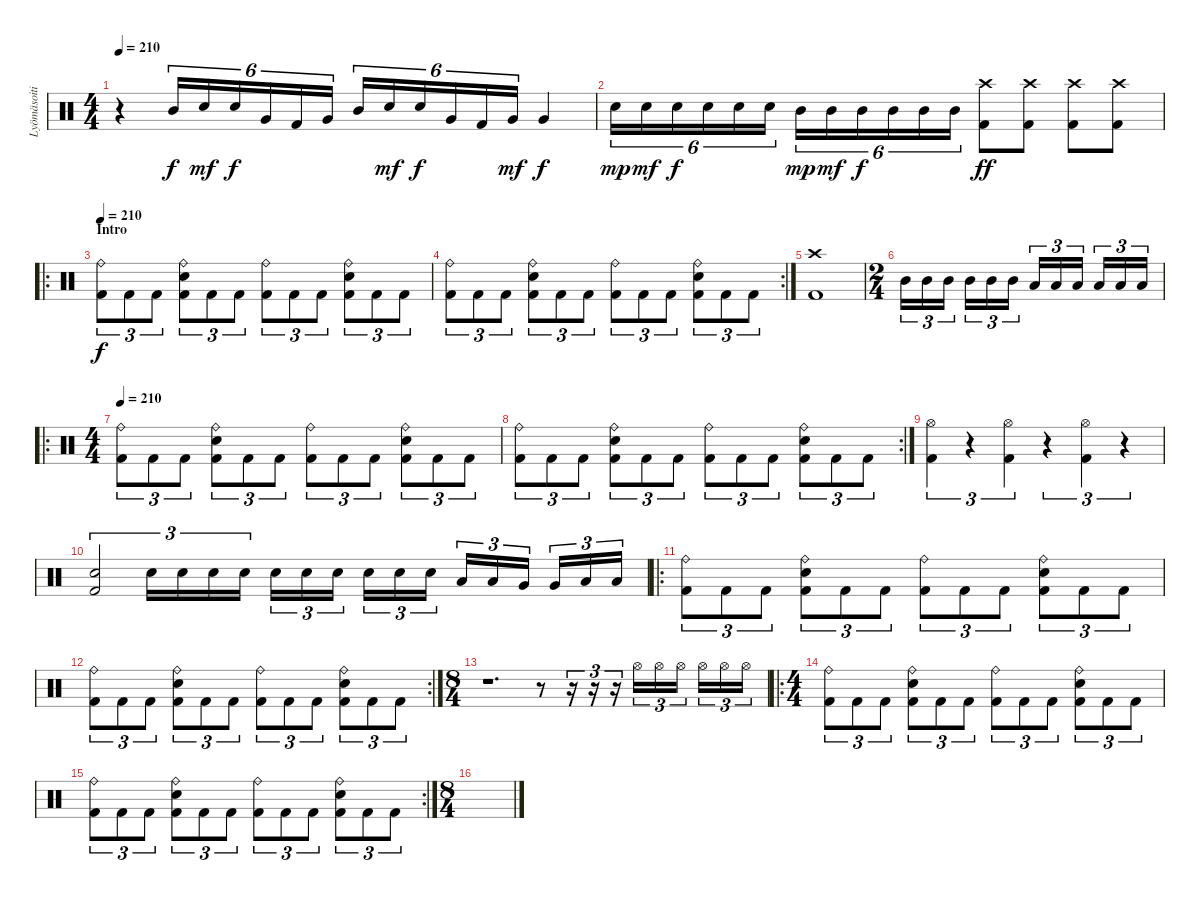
\track ("Lyömäsoitin" "Lyömäsoiti") {instrument percussion}
\staff {score}
\articulation defaults
\ts (4 4)
\tempo 210
\tempo 144
\tempo 210
\clef neutral
\ks c
r.4{dy f} "Mid Tom (hit)".16{tu (6 4)} "Snare (hit) 2".16{tu (6 4) dy mf} "Snare (hit) 2".16{tu (6 4) dy f} "Very Low Tom (hit)".16{tu (6 4)} "Kick (hit) 2".16{tu (6 4)} "Very Low Tom (hit)".16{tu (6 4)} "Mid Tom (hit)".16{tu (6 4)} "Snare (hit) 2".16{tu (6 4) dy mf} "Snare (hit) 2".16{tu (6 4) dy f} "Very Low Tom (hit)".16{tu (6 4)} "Kick (hit) 2".16{tu (6 4)} "Very Low Tom (hit)".16{tu (6 4) dy mf} "Very Low Tom (hit)".4{dy f} |
"Snare (hit) 2".16{tu (6 4) dy mp} "Snare (hit) 2".16{tu (6 4) dy mf} "Snare (hit) 2".16{tu (6 4) dy f} "Snare (hit) 2".16{tu (6 4)} "Snare (hit) 2".16{tu (6 4)} "Snare (hit) 2".16{tu (6 4)} "Mid Tom (hit)".16{tu (6 4) dy mp} "Mid Tom (hit)".16{tu (6 4) dy mf} "Mid Tom (hit)".16{tu (6 4) dy f} "Mid Tom (hit)".16{tu (6 4)} "Mid Tom (hit)".16{tu (6 4)} "Mid Tom (hit)".16{tu (6 4)} ("Crash high (hit)" "Kick (hit) 2").8{dy ff} ("Crash high (hit)" "Kick (hit) 2").8 ("Crash high (hit)" "Kick (hit) 2").8 ("Crash high (hit)" "Kick (hit) 2").8 |
\ro
\section ("" "Intro")
\tempo 210
("Ride (bell)" "Kick (hit) 2").8{tu (3 2) dy f} "Kick (hit) 2".8{tu (3 2)} "Kick (hit) 2".8{tu (3 2)} ("Ride (bell)" "Snare (hit) 2" "Kick (hit) 2").8{tu (3 2)} "Kick (hit) 2".8{tu (3 2)} "Kick (hit) 2".8{tu (3 2)} ("Ride (bell)" "Kick (hit) 2").8{tu (3 2)} "Kick (hit) 2".8{tu (3 2)} "Kick (hit) 2".8{tu (3 2)} ("Ride (bell)" "Snare (hit) 2" "Kick (hit) 2").8{tu (3 2)} "Kick (hit) 2".8{tu (3 2)} "Kick (hit) 2".8{tu (3 2)} |
\rc 2
("Ride (bell)" "Kick (hit) 2").8{tu (3 2)} "Kick (hit) 2".8{tu (3 2)} "Kick (hit) 2".8{tu (3 2)} ("Ride (bell)" "Snare (hit) 2" "Kick (hit) 2").8{tu (3 2)} "Kick (hit) 2".8{tu (3 2)} "Kick (hit) 2".8{tu (3 2)} ("Ride (bell)" "Kick (hit) 2").8{tu (3 2)} "Kick (hit) 2".8{tu (3 2)} "Kick (hit) 2".8{tu (3 2)} ("Ride (bell)" "Snare (hit) 2" "Kick (hit) 2").8{tu (3 2)} "Kick (hit) 2".8{tu (3 2)} "Kick (hit) 2".8{tu (3 2)} |
("Crash high (hit)" "Kick (hit) 2").1 |
\ts (2 4)
"Mid Tom (hit)".16{tu (3 2)} "Mid Tom (hit)".16{tu (3 2)} "Mid Tom (hit)".16{tu (3 2)} "Mid Tom (hit)".16{tu (3 2)} "Mid Tom (hit)".16{tu (3 2)} "Mid Tom (hit)".16{tu (3 2)} "Low Tom (hit)".16{tu (3 2)} "Low Tom (hit)".16{tu (3 2)} "Low Tom (hit)".16{tu (3 2)} "Low Tom (hit)".16{tu (3 2)} "Low Tom (hit)".16{tu (3 2)} "Low Tom (hit)".16{tu (3 2)} |
\ro
\ts (4 4)
\tempo 210
("Ride (bell)" "Kick (hit) 2").8{tu (3 2)} "Kick (hit) 2".8{tu (3 2)} "Kick (hit) 2".8{tu (3 2)} ("Ride (bell)" "Snare (hit) 2" "Kick (hit) 2").8{tu (3 2)} "Kick (hit) 2".8{tu (3 2)} "Kick (hit) 2".8{tu (3 2)} ("Ride (bell)" "Kick (hit) 2").8{tu (3 2)} "Kick (hit) 2".8{tu (3 2)} "Kick (hit) 2".8{tu (3 2)} ("Ride (bell)" "Snare (hit) 2" "Kick (hit) 2").8{tu (3 2)} "Kick (hit) 2".8{tu (3 2)} "Kick (hit) 2".8{tu (3 2)} |
\rc 2
("Ride (bell)" "Kick (hit) 2").8{tu (3 2)} "Kick (hit) 2".8{tu (3 2)} "Kick (hit) 2".8{tu (3 2)} ("Ride (bell)" "Snare (hit) 2" "Kick (hit) 2").8{tu (3 2)} "Kick (hit) 2".8{tu (3 2)} "Kick (hit) 2".8{tu (3 2)} ("Ride (bell)" "Kick (hit) 2").8{tu (3 2)} "Kick (hit) 2".8{tu (3 2)} "Kick (hit) 2".8{tu (3 2)} ("Ride (bell)" "Snare (hit) 2" "Kick (hit) 2").8{tu (3 2)} "Kick (hit) 2".8{tu (3 2)} "Kick (hit) 2".8{tu (3 2)} |
("Kick (hit) 2" "Hi-Hat (open)").4{tu (3 2)} r.4{tu (3 2)} ("Kick (hit) 2" "Hi-Hat (open)").4{tu (3 2)} r.4{tu (3 2)} ("Kick (hit) 2" "Hi-Hat (open)").4{tu (3 2)} r.4{tu (3 2)} |
("Kick (hit) 2" "Snare (hit) 2").2{tu (3 2)} "Snare (hit) 2".16{tu (3 2)} "Snare (hit) 2".16{tu (3 2)} "Snare (hit) 2".16{tu (3 2)} "Snare (hit) 2".16{tu (3 2)} "Snare (hit) 2".16{tu (3 2)} "Snare (hit) 2".16{tu (3 2)} "Snare (hit) 2".16{tu (3 2)} "Snare (hit) 2".16{tu (3 2)} "Snare (hit) 2".16{tu (3 2)} "Snare (hit) 2".16{tu (3 2)} "Low Tom (hit)".16{tu (3 2)} "Low Tom (hit)".16{tu (3 2)} "Very Low Tom (hit)".16{tu (3 2)} "Very Low Tom (hit)".16{tu (3 2)} "Low Floor Tom (hit)".16{tu (3 2)} "Low Floor Tom (hit)".16{tu (3 2)} |
\ro
("Ride (bell)" "Kick (hit) 2").8{tu (3 2)} "Kick (hit) 2".8{tu (3 2)} "Kick (hit) 2".8{tu (3 2)} ("Ride (bell)" "Snare (hit) 2" "Kick (hit) 2").8{tu (3 2)} "Kick (hit) 2".8{tu (3 2)} "Kick (hit) 2".8{tu (3 2)} ("Ride (bell)" "Kick (hit) 2").8{tu (3 2)} "Kick (hit) 2".8{tu (3 2)} "Kick (hit) 2".8{tu (3 2)} ("Ride (bell)" "Snare (hit) 2" "Kick (hit) 2").8{tu (3 2)} "Kick (hit) 2".8{tu (3 2)} "Kick (hit) 2".8{tu (3 2)} |
\rc 2
("Ride (bell)" "Kick (hit) 2").8{tu (3 2)} "Kick (hit) 2".8{tu (3 2)} "Kick (hit) 2".8{tu (3 2)} ("Ride (bell)" "Snare (hit) 2" "Kick (hit) 2").8{tu (3 2)} "Kick (hit) 2".8{tu (3 2)} "Kick (hit) 2".8{tu (3 2)} ("Ride (bell)" "Kick (hit) 2").8{tu (3 2)} "Kick (hit) 2".8{tu (3 2)} "Kick (hit) 2".8{tu (3 2)} ("Ride (bell)" "Snare (hit) 2" "Kick (hit) 2").8{tu (3 2)} "Kick (hit) 2".8{tu (3 2)} "Kick (hit) 2".8{tu (3 2)} |
\ts (8 4)
r.1{d} r.8 r.16{tu (3 2)} r.16{tu (3 2)} r.16{tu (3 2)} "Hi-Hat (open)".16{tu (3 2)} "Hi-Hat (open)".16{tu (3 2)} "Hi-Hat (open)".16{tu (3 2)} "Hi-Hat (open)".16{tu (3 2)} "Hi-Hat (open)".16{tu (3 2)} "Hi-Hat (open)".16{tu (3 2)} |
\ro
\ts (4 4)
("Ride (bell)" "Kick (hit) 2").8{tu (3 2)} "Kick (hit) 2".8{tu (3 2)} "Kick (hit) 2".8{tu (3 2)} ("Ride (bell)" "Snare (hit) 2" "Kick (hit) 2").8{tu (3 2)} "Kick (hit) 2".8{tu (3 2)} "Kick (hit) 2".8{tu (3 2)} ("Ride (bell)" "Kick (hit) 2").8{tu (3 2)} "Kick (hit) 2".8{tu (3 2)} "Kick (hit) 2".8{tu (3 2)} ("Ride (bell)" "Snare (hit) 2" "Kick (hit) 2").8{tu (3 2)} "Kick (hit) 2".8{tu (3 2)} "Kick (hit) 2".8{tu (3 2)} |
\rc 2
("Ride (bell)" "Kick (hit) 2").8{tu (3 2)} "Kick (hit) 2".8{tu (3 2)} "Kick (hit) 2".8{tu (3 2)} ("Ride (bell)" "Snare (hit) 2" "Kick (hit) 2").8{tu (3 2)} "Kick (hit) 2".8{tu (3 2)} "Kick (hit) 2".8{tu (3 2)} ("Ride (bell)" "Kick (hit) 2").8{tu (3 2)} "Kick (hit) 2".8{tu (3 2)} "Kick (hit) 2".8{tu (3 2)} ("Ride (bell)" "Snare (hit) 2" "Kick (hit) 2").8{tu (3 2)} "Kick (hit) 2".8{tu (3 2)} "Kick (hit) 2".8{tu (3 2)} |
\ts (8 4)
